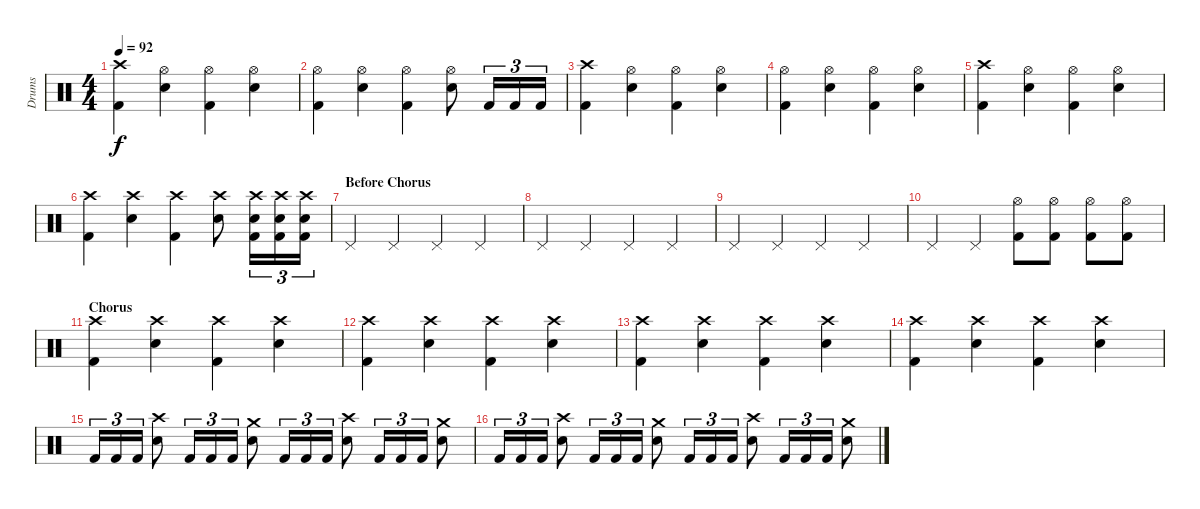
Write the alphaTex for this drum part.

\track ("Drums" "Drums") {instrument percussion}
\staff {score}
\articulation defaults
\ts (4 4)
\tempo 92
\clef neutral
\ks c
("Crash high (hit)" "Kick (hit) 2").4{dy f} ("Hi-Hat (open)" "Electric Snare (hit)").4 ("Hi-Hat (open)" "Kick (hit) 2").4 ("Hi-Hat (open)" "Electric Snare (hit)").4 |
("Hi-Hat (open)" "Kick (hit) 2").4 ("Hi-Hat (open)" "Electric Snare (hit)").4 ("Hi-Hat (open)" "Kick (hit) 2").4 ("Hi-Hat (open)" "Electric Snare (hit)").8 "Kick (hit) 2".16{tu (3 2)} "Kick (hit) 2".16{tu (3 2)} "Kick (hit) 2".16{tu (3 2)} |
("Crash high (hit)" "Kick (hit) 2").4 ("Hi-Hat (open)" "Electric Snare (hit)").4 ("Hi-Hat (open)" "Kick (hit) 2").4 ("Hi-Hat (open)" "Electric Snare (hit)").4 |
("Hi-Hat (open)" "Kick (hit) 2").4 ("Hi-Hat (open)" "Electric Snare (hit)").4 ("Hi-Hat (open)" "Kick (hit) 2").4 ("Hi-Hat (open)" "Electric Snare (hit)").4 |
("Crash high (hit)" "Kick (hit) 2").4 ("Hi-Hat (open)" "Electric Snare (hit)").4 ("Hi-Hat (open)" "Kick (hit) 2").4 ("Hi-Hat (open)" "Electric Snare (hit)").4 |
("Crash high (hit)" "Kick (hit) 2").4 ("Crash high (hit)" "Electric Snare (hit)").4 ("Crash high (hit)" "Kick (hit) 2").4 ("Crash high (hit)" "Electric Snare (hit)").8 ("Crash high (hit)" "Kick (hit) 2" "Electric Snare (hit)").16{tu (3 2)} ("Crash high (hit)" "Kick (hit) 2" "Electric Snare (hit)").16{tu (3 2)} ("Crash high (hit)" "Kick (hit) 2" "Electric Snare (hit)").16{tu (3 2)} |
\section ("" "Before Chorus")
"Pedal Hi-Hat (hit)".4 "Pedal Hi-Hat (hit)".4 "Pedal Hi-Hat (hit)".4 "Pedal Hi-Hat (hit)".4 |
"Pedal Hi-Hat (hit)".4 "Pedal Hi-Hat (hit)".4 "Pedal Hi-Hat (hit)".4 "Pedal Hi-Hat (hit)".4 |
"Pedal Hi-Hat (hit)".4 "Pedal Hi-Hat (hit)".4 "Pedal Hi-Hat (hit)".4 "Pedal Hi-Hat (hit)".4 |
"Pedal Hi-Hat (hit)".4 "Pedal Hi-Hat (hit)".4 ("Hi-Hat (open)" "Kick (hit) 2").8 ("Hi-Hat (open)" "Kick (hit) 2").8 ("Hi-Hat (open)" "Kick (hit) 2").8 ("Hi-Hat (open)" "Kick (hit) 2").8 |
\section ("" "Chorus")
("Crash high (hit)" "Kick (hit) 2").4 ("Crash high (hit)" "Electric Snare (hit)").4 ("Crash high (hit)" "Kick (hit) 2").4 ("Crash high (hit)" "Electric Snare (hit)").4 |
("Crash high (hit)" "Kick (hit) 2").4 ("Crash high (hit)" "Electric Snare (hit)").4 ("Crash high (hit)" "Kick (hit) 2").4 ("Crash high (hit)" "Electric Snare (hit)").4 |
("Crash high (hit)" "Kick (hit) 2").4 ("Crash high (hit)" "Electric Snare (hit)").4 ("Crash high (hit)" "Kick (hit) 2").4 ("Crash high (hit)" "Electric Snare (hit)").4 |
("Crash high (hit)" "Kick (hit) 2").4 ("Crash high (hit)" "Electric Snare (hit)").4 ("Crash high (hit)" "Kick (hit) 2").4 ("Crash high (hit)" "Electric Snare (hit)").4 |
"Kick (hit) 2".16{tu (3 2)} "Kick (hit) 2".16{tu (3 2)} "Kick (hit) 2".16{tu (3 2)} ("Electric Snare (hit)" "Crash high (hit)").8 "Kick (hit) 2".16{tu (3 2)} "Kick (hit) 2".16{tu (3 2)} "Kick (hit) 2".16{tu (3 2)} ("Electric Snare (hit)" "Crash medium (hit)").8 "Kick (hit) 2".16{tu (3 2)} "Kick (hit) 2".16{tu (3 2)} "Kick (hit) 2".16{tu (3 2)} ("Electric Snare (hit)" "Crash high (hit)").8 "Kick (hit) 2".16{tu (3 2)} "Kick (hit) 2".16{tu (3 2)} "Kick (hit) 2".16{tu (3 2)} ("Electric Snare (hit)" "Crash medium (hit)").8 |
"Kick (hit) 2".16{tu (3 2)} "Kick (hit) 2".16{tu (3 2)} "Kick (hit) 2".16{tu (3 2)} ("Electric Snare (hit)" "Crash high (hit)").8 "Kick (hit) 2".16{tu (3 2)} "Kick (hit) 2".16{tu (3 2)} "Kick (hit) 2".16{tu (3 2)} ("Electric Snare (hit)" "Crash medium (hit)").8 "Kick (hit) 2".16{tu (3 2)} "Kick (hit) 2".16{tu (3 2)} "Kick (hit) 2".16{tu (3 2)} ("Electric Snare (hit)" "Crash high (hit)").8 "Kick (hit) 2".16{tu (3 2)} "Kick (hit) 2".16{tu (3 2)} "Kick (hit) 2".16{tu (3 2)} ("Electric Snare (hit)" "Crash medium (hit)").8
